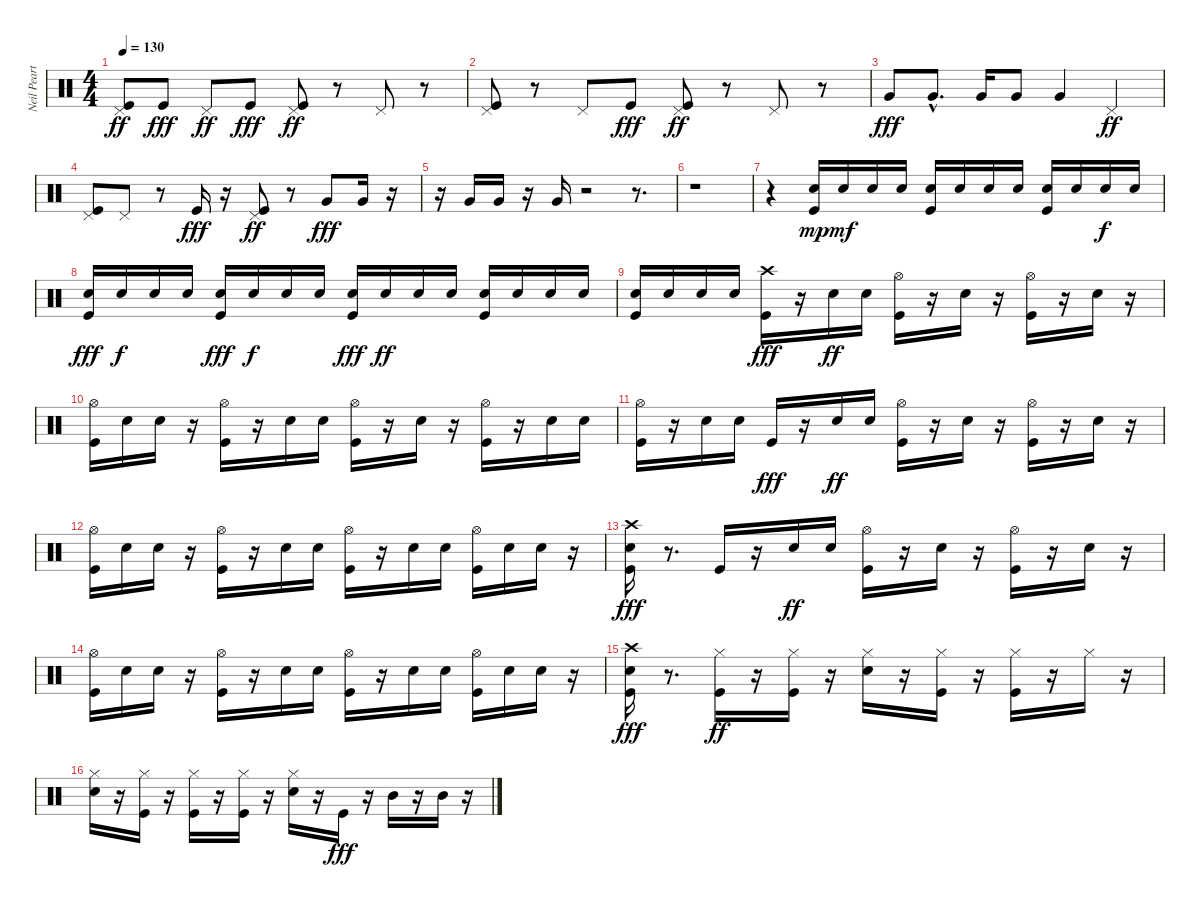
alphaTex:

\track ("Neil Peart" "Neil Peart") {instrument percussion}
\staff {score}
\articulation defaults
\ts (4 4)
\tempo 130
\clef neutral
\ks c
("Kick (hit)" "Pedal Hi-Hat (hit)").8{dy ff} "Kick (hit)".8{dy fff} "Pedal Hi-Hat (hit)".8{dy ff} "Kick (hit)".8{dy fff} ("Kick (hit)" "Pedal Hi-Hat (hit)").8{dy ff} r.8 "Pedal Hi-Hat (hit)".8 r.8 |
("Kick (hit)" "Pedal Hi-Hat (hit)").8 r.8 "Pedal Hi-Hat (hit)".8 "Kick (hit)".8{dy fff} ("Kick (hit)" "Pedal Hi-Hat (hit)").8{dy ff} r.8 "Pedal Hi-Hat (hit)".8 r.8 |
"Very Low Tom (hit)".8{dy fff} "Very Low Tom (hit)"{hac}.8{d} "Very Low Tom (hit)".16 "Very Low Tom (hit)".8 "Very Low Tom (hit)".4 "Pedal Hi-Hat (hit)".4{dy ff} |
("Kick (hit)" "Pedal Hi-Hat (hit)").8 "Pedal Hi-Hat (hit)".8 r.8 "Kick (hit)".16{dy fff} r.16 ("Kick (hit)" "Pedal Hi-Hat (hit)").8{dy ff} r.8 "Very Low Tom (hit)".8{dy fff} "Very Low Tom (hit)".16 r.16 |
r.16 "Very Low Tom (hit)".16 "Very Low Tom (hit)".16 r.16 "Very Low Tom (hit)".16 r.2 r.8{d} |
r.1 |
r.4 ("Kick (hit)" "Snare (hit) 2").16{dy mp} "Snare (hit) 2".16{dy mf} "Snare (hit) 2".16 "Snare (hit) 2".16 ("Kick (hit)" "Snare (hit) 2").16 "Snare (hit) 2".16 "Snare (hit) 2".16 "Snare (hit) 2".16 ("Kick (hit)" "Snare (hit) 2").16 "Snare (hit) 2".16 "Snare (hit) 2".16{dy f} "Snare (hit) 2".16 |
("Kick (hit)" "Snare (hit) 2").16{dy fff} "Snare (hit) 2".16{dy f} "Snare (hit) 2".16 "Snare (hit) 2".16 ("Kick (hit)" "Snare (hit) 2").16{dy fff} "Snare (hit) 2".16{dy f} "Snare (hit) 2".16 "Snare (hit) 2".16 ("Kick (hit)" "Snare (hit) 2").16{dy fff} "Snare (hit) 2".16{dy ff} "Snare (hit) 2".16 "Snare (hit) 2".16 ("Kick (hit)" "Snare (hit) 2").16 "Snare (hit) 2".16 "Snare (hit) 2".16 "Snare (hit) 2".16 |
("Kick (hit)" "Snare (hit) 2").16 "Snare (hit) 2".16 "Snare (hit) 2".16 "Snare (hit) 2".16 ("Kick (hit)" "Crash high (hit)").16{dy fff} r.16 "Snare (hit) 2".16{dy ff} "Snare (hit) 2".16 ("Kick (hit)" "Hi-Hat (open)").16 r.16 "Snare (hit) 2".16 r.16 ("Kick (hit)" "Hi-Hat (open)").16 r.16 "Snare (hit) 2".16 r.16 |
("Kick (hit)" "Hi-Hat (open)").16 "Snare (hit) 2".16 "Snare (hit) 2".16 r.16 ("Kick (hit)" "Hi-Hat (open)").16 r.16 "Snare (hit) 2".16 "Snare (hit) 2".16 ("Kick (hit)" "Hi-Hat (open)").16 r.16 "Snare (hit) 2".16 r.16 ("Kick (hit)" "Hi-Hat (open)").16 r.16 "Snare (hit) 2".16 "Snare (hit) 2".16 |
("Kick (hit)" "Hi-Hat (open)").16 r.16 "Snare (hit) 2".16 "Snare (hit) 2".16 "Kick (hit)".16{dy fff} r.16 "Snare (hit) 2".16{dy ff} "Snare (hit) 2".16 ("Kick (hit)" "Hi-Hat (open)").16 r.16 "Snare (hit) 2".16 r.16 ("Kick (hit)" "Hi-Hat (open)").16 r.16 "Snare (hit) 2".16 r.16 |
("Kick (hit)" "Hi-Hat (open)").16 "Snare (hit) 2".16 "Snare (hit) 2".16 r.16 ("Kick (hit)" "Hi-Hat (open)").16 r.16 "Snare (hit) 2".16 "Snare (hit) 2".16 ("Kick (hit)" "Hi-Hat (open)").16 r.16 "Snare (hit) 2".16 "Snare (hit) 2".16 ("Kick (hit)" "Hi-Hat (open)").16 "Snare (hit) 2".16 "Snare (hit) 2".16 r.16 |
("Kick (hit)" "Snare (hit) 2" "Crash high (hit)").16{dy fff} r.8{d} "Kick (hit)".16 r.16 "Snare (hit) 2".16{dy ff} "Snare (hit) 2".16 ("Kick (hit)" "Hi-Hat (open)").16 r.16 "Snare (hit) 2".16 r.16 ("Kick (hit)" "Hi-Hat (open)").16 r.16 "Snare (hit) 2".16 r.16 |
("Kick (hit)" "Hi-Hat (open)").16 "Snare (hit) 2".16 "Snare (hit) 2".16 r.16 ("Kick (hit)" "Hi-Hat (open)").16 r.16 "Snare (hit) 2".16 "Snare (hit) 2".16 ("Kick (hit)" "Hi-Hat (open)").16 r.16 "Snare (hit) 2".16 "Snare (hit) 2".16 ("Kick (hit)" "Hi-Hat (open)").16 "Snare (hit) 2".16 "Snare (hit) 2".16 r.16 |
("Kick (hit)" "Snare (hit) 2" "Crash high (hit)").16{dy fff} r.8{d} ("Kick (hit)" "Hi-Hat (closed)").16{dy ff} r.16 ("Kick (hit)" "Hi-Hat (closed)").16 r.16 ("Snare (hit) 2" "Hi-Hat (closed)").16 r.16 ("Kick (hit)" "Hi-Hat (closed)").16 r.16 ("Kick (hit)" "Hi-Hat (closed)").16 r.16 "Hi-Hat (closed)".16 r.16 |
("Snare (hit) 2" "Hi-Hat (closed)").16 r.16 ("Kick (hit)" "Hi-Hat (closed)").16 r.16 ("Kick (hit)" "Hi-Hat (closed)").16 r.16 ("Kick (hit)" "Hi-Hat (closed)").16 r.16 ("Snare (hit) 2" "Hi-Hat (closed)").16 r.16 "Kick (hit)".16{dy fff} r.16 "Mid Tom (hit)".16 r.16 "Mid Tom (hit)".16 r.16
